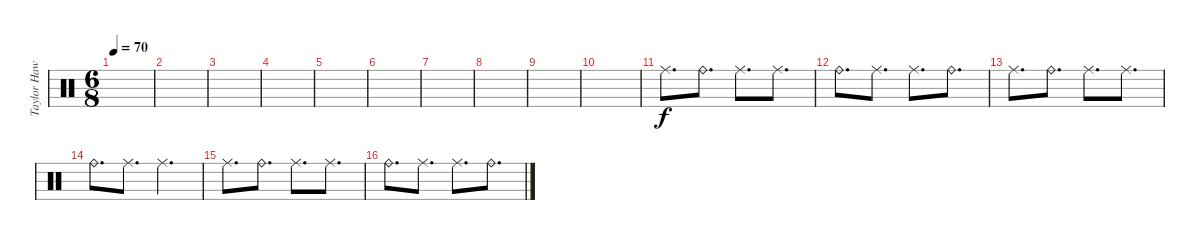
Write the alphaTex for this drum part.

\track ("Taylor Hawkins - Drums" "Taylor Haw") {instrument percussion}
\staff {score}
\articulation defaults
\ts (6 8)
\tempo 70
\clef neutral
\ks c
|
|
|
|
|
|
|
|
|
|
"Ride (middle)".8{d} "Ride (bell)".8{d} "Ride (middle)".8{d} "Ride (middle)".8{d} |
"Ride (bell)".8{d} "Ride (middle)".8{d} "Ride (middle)".8{d} "Ride (bell)".8{d} |
"Ride (middle)".8{d} "Ride (bell)".8{d} "Ride (middle)".8{d} "Ride (middle)".8{d} |
"Ride (bell)".8{d} "Ride (middle)".8{d} "Ride (middle)".4{d} |
"Ride (middle)".8{d} "Ride (bell)".8{d} "Ride (middle)".8{d} "Ride (middle)".8{d} |
"Ride (bell)".8{d} "Ride (middle)".8{d} "Ride (middle)".8{d} "Ride (bell)".8{d}
